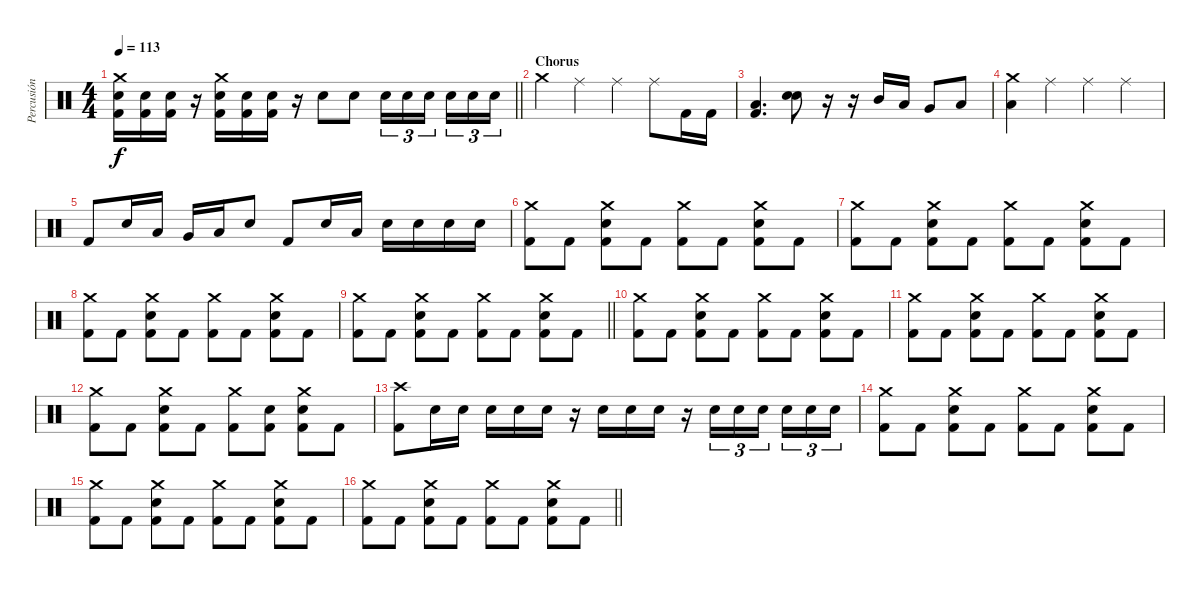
\track ("Percusión" "Percusión") {instrument percussion}
\staff {score}
\articulation defaults
\ts (4 4)
\tempo 113
\clef neutral
\barLineRight lightlight
\ks c
("Crash medium (hit)" "Electric Snare (hit)" "Kick (hit) 2").16{dy f} ("Electric Snare (hit)" "Kick (hit) 2").16 ("Electric Snare (hit)" "Kick (hit) 2").16 r.16 ("Crash medium (hit)" "Electric Snare (hit)" "Kick (hit) 2").16 ("Electric Snare (hit)" "Kick (hit) 2").16 ("Electric Snare (hit)" "Kick (hit) 2").16 r.16 "Electric Snare (hit)".8 "Electric Snare (hit)".8 "Electric Snare (hit)".16{tu (3 2)} "Electric Snare (hit)".16{tu (3 2)} "Electric Snare (hit)".16{tu (3 2) beam splitsecondary} "Electric Snare (hit)".16{tu (3 2)} "Electric Snare (hit)".16{tu (3 2)} "Electric Snare (hit)".16{tu (3 2)} |
\section ("" "Chorus")
"Crash medium (hit)".4 "Ride (middle)".4 "Ride (middle)".4 "Ride (middle)".8 "Kick (hit) 2".16 "Kick (hit) 2".16 |
("Low Floor Tom (hit)" "Kick (hit) 2").4{d} ("Electric Snare (hit)" "Electric Snare (hit)").8{bd 120} r.16 r.16 "Mid Tom (hit)".16 "Low Tom (hit)".16 "Very Low Tom (hit)".8 "Low Tom (hit)".8 |
("Crash medium (hit)" "Low Floor Tom (hit)").4 "Ride (middle)".4 "Ride (middle)".4 "Ride (middle)".4 |
"Kick (hit) 2".8 "Electric Snare (hit)".16 "Low Tom (hit)".16 "Very Low Tom (hit)".16 "Low Floor Tom (hit)".16 "Electric Snare (hit)".8 "Kick (hit) 2".8 "Electric Snare (hit)".16 "Low Floor Tom (hit)".16 "Electric Snare (hit)".16 "Electric Snare (hit)".16 "Electric Snare (hit)".16 "Electric Snare (hit)".16 |
("Crash medium (hit)" "Kick (hit) 2").8 "Kick (hit) 2".8 ("Crash medium (hit)" "Electric Snare (hit)" "Kick (hit) 2").8 "Kick (hit) 2".8 ("Crash medium (hit)" "Kick (hit) 2").8 "Kick (hit) 2".8 ("Crash medium (hit)" "Electric Snare (hit)" "Kick (hit) 2").8 "Kick (hit) 2".8 |
("Crash medium (hit)" "Kick (hit) 2").8 "Kick (hit) 2".8 ("Crash medium (hit)" "Electric Snare (hit)" "Kick (hit) 2").8 "Kick (hit) 2".8 ("Crash medium (hit)" "Kick (hit) 2").8 "Kick (hit) 2".8 ("Crash medium (hit)" "Electric Snare (hit)" "Kick (hit) 2").8 "Kick (hit) 2".8 |
("Crash medium (hit)" "Kick (hit) 2").8 "Kick (hit) 2".8 ("Crash medium (hit)" "Electric Snare (hit)" "Kick (hit) 2").8 "Kick (hit) 2".8 ("Crash medium (hit)" "Kick (hit) 2").8 "Kick (hit) 2".8 ("Crash medium (hit)" "Electric Snare (hit)" "Kick (hit) 2").8 "Kick (hit) 2".8 |
\barLineRight lightlight
("Crash medium (hit)" "Kick (hit) 2").8 "Kick (hit) 2".8 ("Crash medium (hit)" "Electric Snare (hit)" "Kick (hit) 2").8 "Kick (hit) 2".8 ("Crash medium (hit)" "Kick (hit) 2").8 "Kick (hit) 2".8 ("Crash medium (hit)" "Electric Snare (hit)" "Kick (hit) 2").8 "Kick (hit) 2".8 |
("Crash medium (hit)" "Kick (hit) 2").8 "Kick (hit) 2".8 ("Crash medium (hit)" "Electric Snare (hit)" "Kick (hit) 2").8 "Kick (hit) 2".8 ("Crash medium (hit)" "Kick (hit) 2").8 "Kick (hit) 2".8 ("Crash medium (hit)" "Electric Snare (hit)" "Kick (hit) 2").8 "Kick (hit) 2".8 |
("Crash medium (hit)" "Kick (hit) 2").8 "Kick (hit) 2".8 ("Crash medium (hit)" "Electric Snare (hit)" "Kick (hit) 2").8 "Kick (hit) 2".8 ("Crash medium (hit)" "Kick (hit) 2").8 "Kick (hit) 2".8 ("Crash medium (hit)" "Electric Snare (hit)" "Kick (hit) 2").8 "Kick (hit) 2".8 |
("Crash medium (hit)" "Kick (hit) 2").8 "Kick (hit) 2".8 ("Crash medium (hit)" "Electric Snare (hit)" "Kick (hit) 2").8 "Kick (hit) 2".8 ("Crash medium (hit)" "Kick (hit) 2").8 ("Electric Snare (hit)" "Kick (hit) 2").8 ("Crash medium (hit)" "Electric Snare (hit)" "Kick (hit) 2").8 "Kick (hit) 2".8 |
("Crash high (hit)" "Kick (hit) 2").8 "Electric Snare (hit)".16 "Electric Snare (hit)".16 "Electric Snare (hit)".16 "Electric Snare (hit)".16 "Electric Snare (hit)".16 r.16 "Electric Snare (hit)".16 "Electric Snare (hit)".16 "Electric Snare (hit)".16 r.16 "Electric Snare (hit)".16{tu (3 2)} "Electric Snare (hit)".16{tu (3 2)} "Electric Snare (hit)".16{tu (3 2) beam splitsecondary} "Electric Snare (hit)".16{tu (3 2)} "Electric Snare (hit)".16{tu (3 2)} "Electric Snare (hit)".16{tu (3 2)} |
("Crash medium (hit)" "Kick (hit) 2").8 "Kick (hit) 2".8 ("Crash medium (hit)" "Electric Snare (hit)" "Kick (hit) 2").8 "Kick (hit) 2".8 ("Crash medium (hit)" "Kick (hit) 2").8 "Kick (hit) 2".8 ("Crash medium (hit)" "Electric Snare (hit)" "Kick (hit) 2").8 "Kick (hit) 2".8 |
("Crash medium (hit)" "Kick (hit) 2").8 "Kick (hit) 2".8 ("Crash medium (hit)" "Electric Snare (hit)" "Kick (hit) 2").8 "Kick (hit) 2".8 ("Crash medium (hit)" "Kick (hit) 2").8 "Kick (hit) 2".8 ("Crash medium (hit)" "Electric Snare (hit)" "Kick (hit) 2").8 "Kick (hit) 2".8 |
\barLineRight lightlight
("Crash medium (hit)" "Kick (hit) 2").8 "Kick (hit) 2".8 ("Crash medium (hit)" "Electric Snare (hit)" "Kick (hit) 2").8 "Kick (hit) 2".8 ("Crash medium (hit)" "Kick (hit) 2").8 "Kick (hit) 2".8 ("Crash medium (hit)" "Electric Snare (hit)" "Kick (hit) 2").8 "Kick (hit) 2".8
